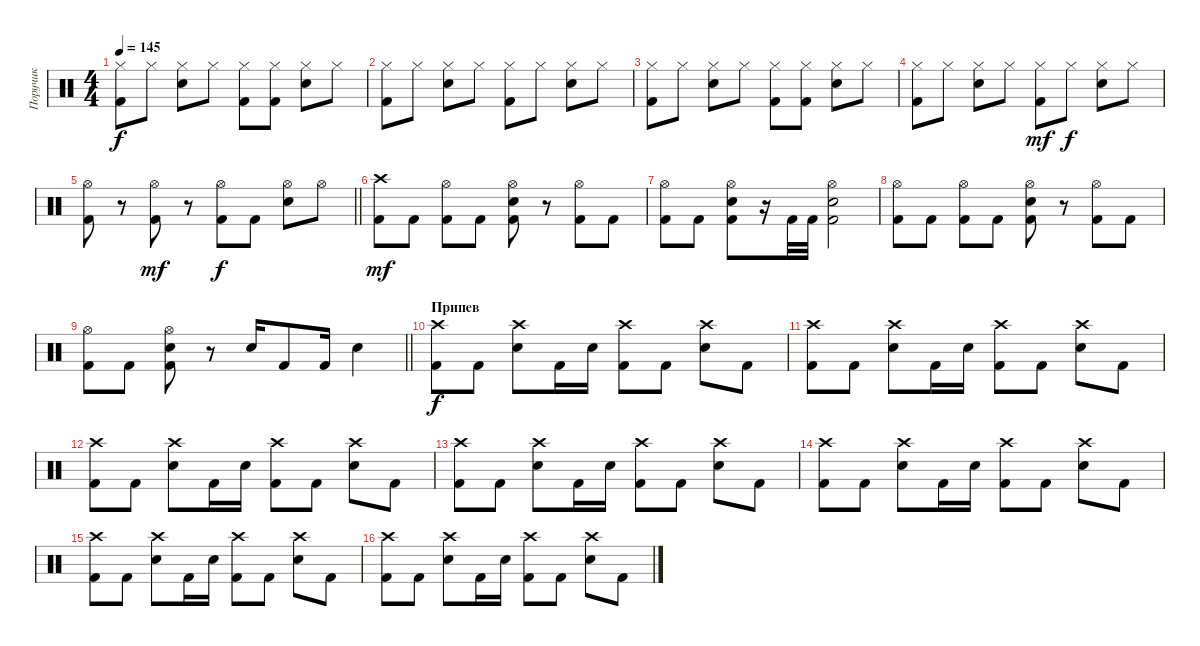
\track ("Поручик" "Поручик") {instrument percussion}
\staff {score}
\articulation defaults
\ts (4 4)
\tempo 145
\clef neutral
\ks c
("Hi-Hat (closed)" "Kick (hit) 2").8{dy f} "Hi-Hat (closed)".8 ("Hi-Hat (closed)" "Electric Snare (hit)").8 "Hi-Hat (closed)".8 ("Hi-Hat (closed)" "Kick (hit) 2").8 ("Hi-Hat (closed)" "Kick (hit) 2").8 ("Hi-Hat (closed)" "Electric Snare (hit)").8 "Hi-Hat (closed)".8 |
("Hi-Hat (closed)" "Kick (hit) 2").8 "Hi-Hat (closed)".8 ("Hi-Hat (closed)" "Electric Snare (hit)").8 "Hi-Hat (closed)".8 ("Hi-Hat (closed)" "Kick (hit) 2").8 "Hi-Hat (closed)".8 ("Hi-Hat (closed)" "Electric Snare (hit)").8 "Hi-Hat (closed)".8 |
("Hi-Hat (closed)" "Kick (hit) 2").8 "Hi-Hat (closed)".8 ("Hi-Hat (closed)" "Electric Snare (hit)").8 "Hi-Hat (closed)".8 ("Hi-Hat (closed)" "Kick (hit) 2").8 ("Hi-Hat (closed)" "Kick (hit) 2").8 ("Hi-Hat (closed)" "Electric Snare (hit)").8 "Hi-Hat (closed)".8 |
("Hi-Hat (closed)" "Kick (hit) 2").8 "Hi-Hat (closed)".8 ("Hi-Hat (closed)" "Electric Snare (hit)").8 "Hi-Hat (closed)".8 ("Hi-Hat (closed)" "Kick (hit) 2").8{dy mf} "Hi-Hat (closed)".8{dy f} ("Hi-Hat (closed)" "Electric Snare (hit)").8 "Hi-Hat (closed)".8 |
\barLineRight lightlight
("Hi-Hat (open)" "Kick (hit) 2").8 r.8 ("Hi-Hat (open)" "Kick (hit) 2").8{dy mf} r.8 ("Hi-Hat (open)" "Kick (hit) 2").8{dy f} "Kick (hit) 2".8 ("Hi-Hat (open)" "Electric Snare (hit)").8 "Hi-Hat (open)".8 |
("Crash high (hit)" "Kick (hit) 2").8{dy mf} "Kick (hit) 2".8 ("Hi-Hat (open)" "Kick (hit) 2").8 "Kick (hit) 2".8 ("Hi-Hat (open)" "Electric Snare (hit)" "Kick (hit) 2").8 r.8 ("Hi-Hat (open)" "Kick (hit) 2").8 "Kick (hit) 2".8 |
("Hi-Hat (open)" "Kick (hit) 2").8 "Kick (hit) 2".8 ("Hi-Hat (open)" "Electric Snare (hit)" "Kick (hit) 2").8 r.16 "Kick (hit) 2".32 "Kick (hit) 2".32 ("Hi-Hat (open)" "Electric Snare (hit)" "Kick (hit) 2").2 |
("Hi-Hat (open)" "Kick (hit) 2").8 "Kick (hit) 2".8 ("Hi-Hat (open)" "Kick (hit) 2").8 "Kick (hit) 2".8 ("Hi-Hat (open)" "Electric Snare (hit)" "Kick (hit) 2").8 r.8 ("Hi-Hat (open)" "Kick (hit) 2").8 "Kick (hit) 2".8 |
\barLineRight lightlight
("Hi-Hat (open)" "Kick (hit) 2").8 "Kick (hit) 2".8 ("Hi-Hat (open)" "Electric Snare (hit)" "Kick (hit) 2").8 r.8 "Electric Snare (hit)".16 "Kick (hit) 2".8 "Kick (hit) 2".16 "Electric Snare (hit)".4 |
\section ("" "Припев")
("Crash high (hit)" "Kick (hit) 2").8{dy f} "Kick (hit) 2".8 ("Crash high (hit)" "Electric Snare (hit)").8 "Kick (hit) 2".16 "Electric Snare (hit)".16 ("Crash high (hit)" "Kick (hit) 2").8 "Kick (hit) 2".8 ("Crash high (hit)" "Electric Snare (hit)").8 "Kick (hit) 2".8 |
("Crash high (hit)" "Kick (hit) 2").8 "Kick (hit) 2".8 ("Crash high (hit)" "Electric Snare (hit)").8 "Kick (hit) 2".16 "Electric Snare (hit)".16 ("Crash high (hit)" "Kick (hit) 2").8 "Kick (hit) 2".8 ("Crash high (hit)" "Electric Snare (hit)").8 "Kick (hit) 2".8 |
("Crash high (hit)" "Kick (hit) 2").8 "Kick (hit) 2".8 ("Crash high (hit)" "Electric Snare (hit)").8 "Kick (hit) 2".16 "Electric Snare (hit)".16 ("Crash high (hit)" "Kick (hit) 2").8 "Kick (hit) 2".8 ("Crash high (hit)" "Electric Snare (hit)").8 "Kick (hit) 2".8 |
("Crash high (hit)" "Kick (hit) 2").8 "Kick (hit) 2".8 ("Crash high (hit)" "Electric Snare (hit)").8 "Kick (hit) 2".16 "Electric Snare (hit)".16 ("Crash high (hit)" "Kick (hit) 2").8 "Kick (hit) 2".8 ("Crash high (hit)" "Electric Snare (hit)").8 "Kick (hit) 2".8 |
("Crash high (hit)" "Kick (hit) 2").8 "Kick (hit) 2".8 ("Crash high (hit)" "Electric Snare (hit)").8 "Kick (hit) 2".16 "Electric Snare (hit)".16 ("Crash high (hit)" "Kick (hit) 2").8 "Kick (hit) 2".8 ("Crash high (hit)" "Electric Snare (hit)").8 "Kick (hit) 2".8 |
("Crash high (hit)" "Kick (hit) 2").8 "Kick (hit) 2".8 ("Crash high (hit)" "Electric Snare (hit)").8 "Kick (hit) 2".16 "Electric Snare (hit)".16 ("Crash high (hit)" "Kick (hit) 2").8 "Kick (hit) 2".8 ("Crash high (hit)" "Electric Snare (hit)").8 "Kick (hit) 2".8 |
("Crash high (hit)" "Kick (hit) 2").8 "Kick (hit) 2".8 ("Crash high (hit)" "Electric Snare (hit)").8 "Kick (hit) 2".16 "Electric Snare (hit)".16 ("Crash high (hit)" "Kick (hit) 2").8 "Kick (hit) 2".8 ("Crash high (hit)" "Electric Snare (hit)").8 "Kick (hit) 2".8
